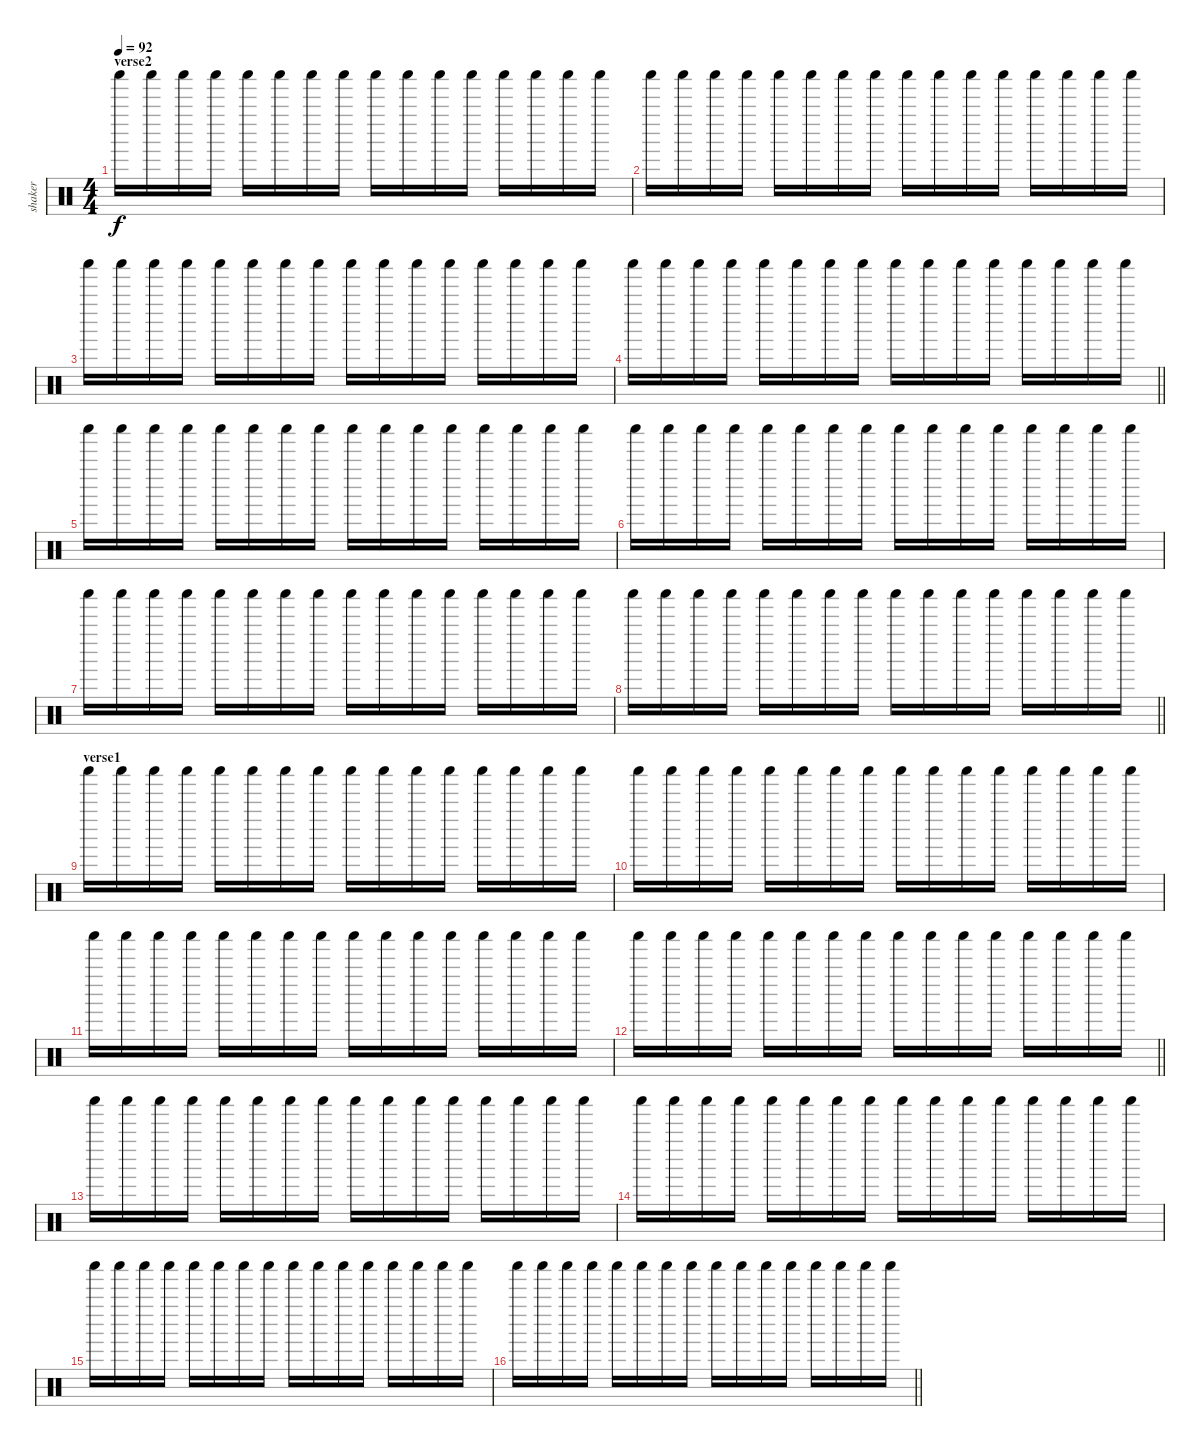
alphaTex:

\track ("shaker" "shaker") {instrument percussion}
\staff {score}
\articulation defaults
\ts (4 4)
\section ("" "verse2")
\tempo 92
\clef neutral
\ks c "Shaker (hit)".16{dy f} "Shaker (hit)".16 "Shaker (hit)".16 "Shaker (hit)".16 "Shaker (hit)".16 "Shaker (hit)".16 "Shaker (hit)".16 "Shaker (hit)".16 "Shaker (hit)".16 "Shaker (hit)".16 "Shaker (hit)".16 "Shaker (hit)".16 "Shaker (hit)".16 "Shaker (hit)".16 "Shaker (hit)".16 "Shaker (hit)".16
|
"Shaker (hit)".16 "Shaker (hit)".16 "Shaker (hit)".16 "Shaker (hit)".16 "Shaker (hit)".16 "Shaker (hit)".16 "Shaker (hit)".16 "Shaker (hit)".16 "Shaker (hit)".16 "Shaker (hit)".16 "Shaker (hit)".16 "Shaker (hit)".16 "Shaker (hit)".16 "Shaker (hit)".16 "Shaker (hit)".16 "Shaker (hit)".16 |
"Shaker (hit)".16 "Shaker (hit)".16 "Shaker (hit)".16 "Shaker (hit)".16 "Shaker (hit)".16 "Shaker (hit)".16 "Shaker (hit)".16 "Shaker (hit)".16 "Shaker (hit)".16 "Shaker (hit)".16 "Shaker (hit)".16 "Shaker (hit)".16 "Shaker (hit)".16 "Shaker (hit)".16 "Shaker (hit)".16 "Shaker (hit)".16 |
\barLineRight lightlight "Shaker (hit)".16 "Shaker (hit)".16 "Shaker (hit)".16 "Shaker (hit)".16 "Shaker (hit)".16 "Shaker (hit)".16 "Shaker (hit)".16 "Shaker (hit)".16 "Shaker (hit)".16 "Shaker (hit)".16 "Shaker (hit)".16 "Shaker (hit)".16 "Shaker (hit)".16 "Shaker (hit)".16 "Shaker (hit)".16 "Shaker (hit)".16
|
"Shaker (hit)".16 "Shaker (hit)".16 "Shaker (hit)".16 "Shaker (hit)".16 "Shaker (hit)".16 "Shaker (hit)".16 "Shaker (hit)".16 "Shaker (hit)".16 "Shaker (hit)".16 "Shaker (hit)".16 "Shaker (hit)".16 "Shaker (hit)".16 "Shaker (hit)".16 "Shaker (hit)".16 "Shaker (hit)".16 "Shaker (hit)".16 |
"Shaker (hit)".16 "Shaker (hit)".16 "Shaker (hit)".16 "Shaker (hit)".16 "Shaker (hit)".16 "Shaker (hit)".16 "Shaker (hit)".16 "Shaker (hit)".16 "Shaker (hit)".16 "Shaker (hit)".16 "Shaker (hit)".16 "Shaker (hit)".16 "Shaker (hit)".16 "Shaker (hit)".16 "Shaker (hit)".16 "Shaker (hit)".16 |
"Shaker (hit)".16 "Shaker (hit)".16 "Shaker (hit)".16 "Shaker (hit)".16 "Shaker (hit)".16 "Shaker (hit)".16 "Shaker (hit)".16 "Shaker (hit)".16 "Shaker (hit)".16 "Shaker (hit)".16 "Shaker (hit)".16 "Shaker (hit)".16 "Shaker (hit)".16 "Shaker (hit)".16 "Shaker (hit)".16 "Shaker (hit)".16 |
\barLineRight lightlight "Shaker (hit)".16 "Shaker (hit)".16 "Shaker (hit)".16 "Shaker (hit)".16 "Shaker (hit)".16 "Shaker (hit)".16 "Shaker (hit)".16 "Shaker (hit)".16 "Shaker (hit)".16 "Shaker (hit)".16 "Shaker (hit)".16 "Shaker (hit)".16 "Shaker (hit)".16 "Shaker (hit)".16 "Shaker (hit)".16 "Shaker (hit)".16
|
\section ("" "verse1")
"Shaker (hit)".16 "Shaker (hit)".16 "Shaker (hit)".16 "Shaker (hit)".16 "Shaker (hit)".16 "Shaker (hit)".16 "Shaker (hit)".16 "Shaker (hit)".16 "Shaker (hit)".16 "Shaker (hit)".16 "Shaker (hit)".16 "Shaker (hit)".16 "Shaker (hit)".16 "Shaker (hit)".16 "Shaker (hit)".16 "Shaker (hit)".16 |
"Shaker (hit)".16 "Shaker (hit)".16 "Shaker (hit)".16 "Shaker (hit)".16 "Shaker (hit)".16 "Shaker (hit)".16 "Shaker (hit)".16 "Shaker (hit)".16 "Shaker (hit)".16 "Shaker (hit)".16 "Shaker (hit)".16 "Shaker (hit)".16 "Shaker (hit)".16 "Shaker (hit)".16 "Shaker (hit)".16 "Shaker (hit)".16 |
"Shaker (hit)".16 "Shaker (hit)".16 "Shaker (hit)".16 "Shaker (hit)".16 "Shaker (hit)".16 "Shaker (hit)".16 "Shaker (hit)".16 "Shaker (hit)".16 "Shaker (hit)".16 "Shaker (hit)".16 "Shaker (hit)".16 "Shaker (hit)".16 "Shaker (hit)".16 "Shaker (hit)".16 "Shaker (hit)".16 "Shaker (hit)".16 |
\barLineRight lightlight "Shaker (hit)".16 "Shaker (hit)".16 "Shaker (hit)".16 "Shaker (hit)".16 "Shaker (hit)".16 "Shaker (hit)".16 "Shaker (hit)".16 "Shaker (hit)".16 "Shaker (hit)".16 "Shaker (hit)".16 "Shaker (hit)".16 "Shaker (hit)".16 "Shaker (hit)".16 "Shaker (hit)".16 "Shaker (hit)".16 "Shaker (hit)".16
|
"Shaker (hit)".16 "Shaker (hit)".16 "Shaker (hit)".16 "Shaker (hit)".16 "Shaker (hit)".16 "Shaker (hit)".16 "Shaker (hit)".16 "Shaker (hit)".16 "Shaker (hit)".16 "Shaker (hit)".16 "Shaker (hit)".16 "Shaker (hit)".16 "Shaker (hit)".16 "Shaker (hit)".16 "Shaker (hit)".16 "Shaker (hit)".16 |
"Shaker (hit)".16 "Shaker (hit)".16 "Shaker (hit)".16 "Shaker (hit)".16 "Shaker (hit)".16 "Shaker (hit)".16 "Shaker (hit)".16 "Shaker (hit)".16 "Shaker (hit)".16 "Shaker (hit)".16 "Shaker (hit)".16 "Shaker (hit)".16 "Shaker (hit)".16 "Shaker (hit)".16 "Shaker (hit)".16 "Shaker (hit)".16 |
"Shaker (hit)".16 "Shaker (hit)".16 "Shaker (hit)".16 "Shaker (hit)".16 "Shaker (hit)".16 "Shaker (hit)".16 "Shaker (hit)".16 "Shaker (hit)".16 "Shaker (hit)".16 "Shaker (hit)".16 "Shaker (hit)".16 "Shaker (hit)".16 "Shaker (hit)".16 "Shaker (hit)".16 "Shaker (hit)".16 "Shaker (hit)".16 |
\barLineRight lightlight "Shaker (hit)".16 "Shaker (hit)".16 "Shaker (hit)".16 "Shaker (hit)".16 "Shaker (hit)".16 "Shaker (hit)".16 "Shaker (hit)".16 "Shaker (hit)".16 "Shaker (hit)".16 "Shaker (hit)".16 "Shaker (hit)".16 "Shaker (hit)".16 "Shaker (hit)".16 "Shaker (hit)".16 "Shaker (hit)".16 "Shaker (hit)".16
